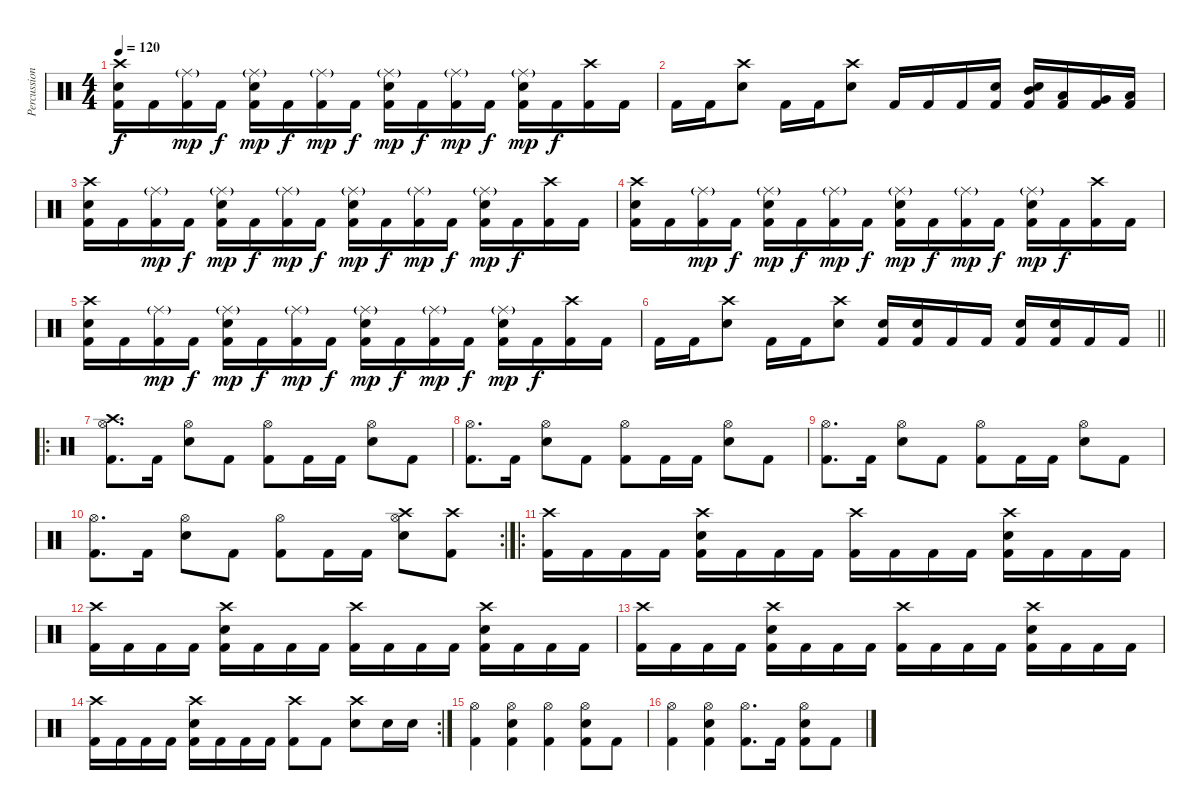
\track ("Percussion" "Percussion") {instrument percussion}
\staff {score}
\articulation defaults
\ts (4 4)
\tempo 120
\clef neutral
\ks c
("Snare (hit) 2" "Kick (hit) 2" "Crash high (hit)").16{dy f} "Kick (hit) 2".16 ("Ride (middle)"{g} "Kick (hit) 2").16{dy mp} "Kick (hit) 2".16{dy f} ("Ride (middle)"{g} "Snare (hit) 2" "Kick (hit) 2").16{dy mp} "Kick (hit) 2".16{dy f} ("Ride (middle)"{g} "Kick (hit) 2").16{dy mp} "Kick (hit) 2".16{dy f} ("Ride (middle)"{g} "Snare (hit) 2" "Kick (hit) 2").16{dy mp} "Kick (hit) 2".16{dy f} ("Ride (middle)"{g} "Kick (hit) 2").16{dy mp} "Kick (hit) 2".16{dy f} ("Ride (middle)"{g} "Snare (hit) 2" "Kick (hit) 2").16{dy mp} "Kick (hit) 2".16{dy f} ("Kick (hit) 2" "Crash high (hit)").16 "Kick (hit) 2".16 |
"Kick (hit) 2".16 "Kick (hit) 2".16 ("Snare (hit) 2" "Crash high (hit)").8 "Kick (hit) 2".16 "Kick (hit) 2".16 ("Snare (hit) 2" "Crash high (hit)").8 "Kick (hit) 2".16 "Kick (hit) 2".16 "Kick (hit) 2".16 ("Snare (hit) 2" "Kick (hit) 2").16 ("Mid Tom (hit)" "Snare (hit) 2" "Kick (hit) 2").16 ("Low Tom (hit)" "Kick (hit) 2").16 ("Very Low Tom (hit)" "Kick (hit) 2").16 ("Low Floor Tom (hit)" "Kick (hit) 2").16 |
("Snare (hit) 2" "Kick (hit) 2" "Crash high (hit)").16 "Kick (hit) 2".16 ("Ride (middle)"{g} "Kick (hit) 2").16{dy mp} "Kick (hit) 2".16{dy f} ("Ride (middle)"{g} "Snare (hit) 2" "Kick (hit) 2").16{dy mp} "Kick (hit) 2".16{dy f} ("Ride (middle)"{g} "Kick (hit) 2").16{dy mp} "Kick (hit) 2".16{dy f} ("Ride (middle)"{g} "Snare (hit) 2" "Kick (hit) 2").16{dy mp} "Kick (hit) 2".16{dy f} ("Ride (middle)"{g} "Kick (hit) 2").16{dy mp} "Kick (hit) 2".16{dy f} ("Ride (middle)"{g} "Snare (hit) 2" "Kick (hit) 2").16{dy mp} "Kick (hit) 2".16{dy f} ("Kick (hit) 2" "Crash high (hit)").16 "Kick (hit) 2".16 |
("Snare (hit) 2" "Kick (hit) 2" "Crash high (hit)").16 "Kick (hit) 2".16 ("Ride (middle)"{g} "Kick (hit) 2").16{dy mp} "Kick (hit) 2".16{dy f} ("Ride (middle)"{g} "Snare (hit) 2" "Kick (hit) 2").16{dy mp} "Kick (hit) 2".16{dy f} ("Ride (middle)"{g} "Kick (hit) 2").16{dy mp} "Kick (hit) 2".16{dy f} ("Ride (middle)"{g} "Snare (hit) 2" "Kick (hit) 2").16{dy mp} "Kick (hit) 2".16{dy f} ("Ride (middle)"{g} "Kick (hit) 2").16{dy mp} "Kick (hit) 2".16{dy f} ("Ride (middle)"{g} "Snare (hit) 2" "Kick (hit) 2").16{dy mp} "Kick (hit) 2".16{dy f} ("Kick (hit) 2" "Crash high (hit)").16 "Kick (hit) 2".16 |
("Snare (hit) 2" "Kick (hit) 2" "Crash high (hit)").16 "Kick (hit) 2".16 ("Ride (middle)"{g} "Kick (hit) 2").16{dy mp} "Kick (hit) 2".16{dy f} ("Ride (middle)"{g} "Snare (hit) 2" "Kick (hit) 2").16{dy mp} "Kick (hit) 2".16{dy f} ("Ride (middle)"{g} "Kick (hit) 2").16{dy mp} "Kick (hit) 2".16{dy f} ("Ride (middle)"{g} "Snare (hit) 2" "Kick (hit) 2").16{dy mp} "Kick (hit) 2".16{dy f} ("Ride (middle)"{g} "Kick (hit) 2").16{dy mp} "Kick (hit) 2".16{dy f} ("Ride (middle)"{g} "Snare (hit) 2" "Kick (hit) 2").16{dy mp} "Kick (hit) 2".16{dy f} ("Kick (hit) 2" "Crash high (hit)").16 "Kick (hit) 2".16 |
\barLineRight lightlight "Kick (hit) 2".16 "Kick (hit) 2".16
("Snare (hit) 2" "Crash high (hit)").8 "Kick (hit) 2".16 "Kick (hit) 2".16 ("Snare (hit) 2" "Crash high (hit)").8 ("Snare (hit) 2" "Kick (hit) 2").16 ("Snare (hit) 2" "Kick (hit) 2").16 "Kick (hit) 2".16 "Kick (hit) 2".16 ("Snare (hit) 2" "Kick (hit) 2").16 ("Snare (hit) 2" "Kick (hit) 2").16 "Kick (hit) 2".16 "Kick (hit) 2".16 |
\ro
("Hi-Hat (open)" "Kick (hit) 2" "Crash high (hit)").8{d} "Kick (hit) 2".16 ("Hi-Hat (open)" "Snare (hit) 2").8 "Kick (hit) 2".8 ("Hi-Hat (open)" "Kick (hit) 2").8 "Kick (hit) 2".16 "Kick (hit) 2".16 ("Hi-Hat (open)" "Snare (hit) 2").8 "Kick (hit) 2".8 |
("Hi-Hat (open)" "Kick (hit) 2").8{d} "Kick (hit) 2".16 ("Hi-Hat (open)" "Snare (hit) 2").8 "Kick (hit) 2".8 ("Hi-Hat (open)" "Kick (hit) 2").8 "Kick (hit) 2".16 "Kick (hit) 2".16 ("Hi-Hat (open)" "Snare (hit) 2").8 "Kick (hit) 2".8 |
("Hi-Hat (open)" "Kick (hit) 2").8{d} "Kick (hit) 2".16 ("Hi-Hat (open)" "Snare (hit) 2").8 "Kick (hit) 2".8 ("Hi-Hat (open)" "Kick (hit) 2").8 "Kick (hit) 2".16 "Kick (hit) 2".16 ("Hi-Hat (open)" "Snare (hit) 2").8 "Kick (hit) 2".8 |
\rc 2
("Hi-Hat (open)" "Kick (hit) 2").8{d} "Kick (hit) 2".16 ("Hi-Hat (open)" "Snare (hit) 2").8 "Kick (hit) 2".8 ("Hi-Hat (open)" "Kick (hit) 2").8 "Kick (hit) 2".16 "Kick (hit) 2".16 ("Hi-Hat (open)" "Snare (hit) 2" "Crash high (hit)").8 ("Kick (hit) 2" "Crash high (hit)").8 |
\ro
("Kick (hit) 2" "Crash high (hit)").16 "Kick (hit) 2".16 "Kick (hit) 2".16 "Kick (hit) 2".16 ("Snare (hit) 2" "Kick (hit) 2" "Crash high (hit)").16 "Kick (hit) 2".16 "Kick (hit) 2".16 "Kick (hit) 2".16 ("Kick (hit) 2" "Crash high (hit)").16 "Kick (hit) 2".16 "Kick (hit) 2".16 "Kick (hit) 2".16 ("Snare (hit) 2" "Kick (hit) 2" "Crash high (hit)").16 "Kick (hit) 2".16 "Kick (hit) 2".16 "Kick (hit) 2".16 |
("Kick (hit) 2" "Crash high (hit)").16 "Kick (hit) 2".16 "Kick (hit) 2".16 "Kick (hit) 2".16 ("Snare (hit) 2" "Kick (hit) 2" "Crash high (hit)").16 "Kick (hit) 2".16 "Kick (hit) 2".16 "Kick (hit) 2".16 ("Kick (hit) 2" "Crash high (hit)").16 "Kick (hit) 2".16 "Kick (hit) 2".16 "Kick (hit) 2".16 ("Snare (hit) 2" "Kick (hit) 2" "Crash high (hit)").16 "Kick (hit) 2".16 "Kick (hit) 2".16 "Kick (hit) 2".16 |
("Kick (hit) 2" "Crash high (hit)").16 "Kick (hit) 2".16 "Kick (hit) 2".16 "Kick (hit) 2".16 ("Snare (hit) 2" "Kick (hit) 2" "Crash high (hit)").16 "Kick (hit) 2".16 "Kick (hit) 2".16 "Kick (hit) 2".16 ("Kick (hit) 2" "Crash high (hit)").16 "Kick (hit) 2".16 "Kick (hit) 2".16 "Kick (hit) 2".16 ("Snare (hit) 2" "Kick (hit) 2" "Crash high (hit)").16 "Kick (hit) 2".16 "Kick (hit) 2".16 "Kick (hit) 2".16 |
\rc 2
("Kick (hit) 2" "Crash high (hit)").16 "Kick (hit) 2".16 "Kick (hit) 2".16 "Kick (hit) 2".16 ("Snare (hit) 2" "Kick (hit) 2" "Crash high (hit)").16 "Kick (hit) 2".16 "Kick (hit) 2".16 "Kick (hit) 2".16 ("Kick (hit) 2" "Crash high (hit)").8 "Kick (hit) 2".8 ("Snare (hit) 2" "Crash high (hit)").8 "Snare (hit) 2".16 "Snare (hit) 2".16 |
("Hi-Hat (open)" "Kick (hit) 2").4 ("Hi-Hat (open)" "Snare (hit) 2" "Kick (hit) 2").4 ("Hi-Hat (open)" "Kick (hit) 2").4 ("Hi-Hat (open)" "Snare (hit) 2" "Kick (hit) 2").8 "Kick (hit) 2".8 |
("Hi-Hat (open)" "Kick (hit) 2").4 ("Hi-Hat (open)" "Snare (hit) 2" "Kick (hit) 2").4 ("Hi-Hat (open)" "Kick (hit) 2").8{d} "Kick (hit) 2".16 ("Hi-Hat (open)" "Snare (hit) 2" "Kick (hit) 2").8 "Kick (hit) 2".8
